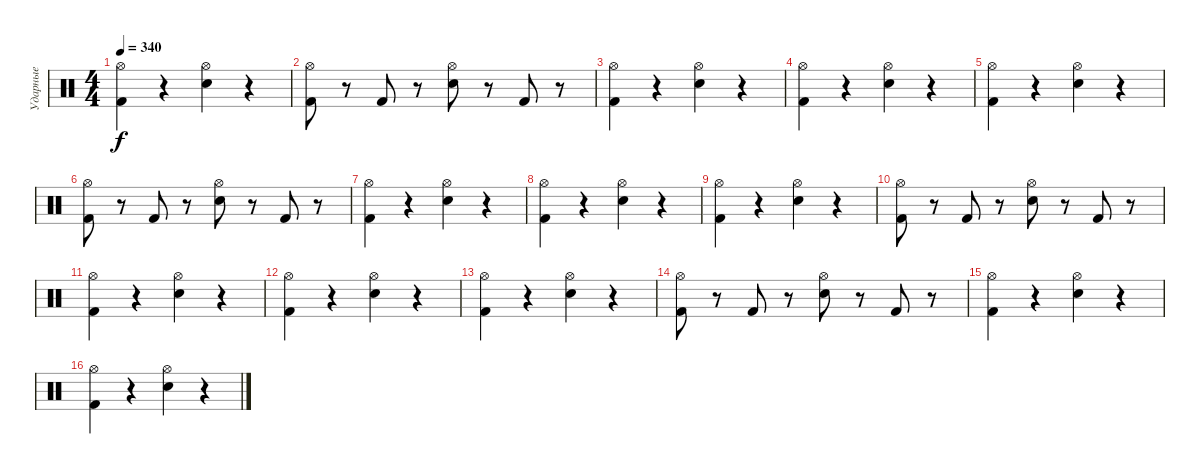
\track ("Ударные" "Ударные") {instrument percussion}
\staff {score}
\articulation defaults
\ts (4 4)
\tempo 340
\clef neutral
\ks c
("Kick (hit) 2" "Hi-Hat (open)").4{dy f} r.4 ("Electric Snare (hit)" "Hi-Hat (open)").4 r.4 |
("Kick (hit) 2" "Hi-Hat (open)").8 r.8 "Kick (hit) 2".8 r.8 ("Electric Snare (hit)" "Hi-Hat (open)").8 r.8 "Kick (hit) 2".8 r.8 |
("Kick (hit) 2" "Hi-Hat (open)").4 r.4 ("Electric Snare (hit)" "Hi-Hat (open)").4 r.4 |
("Kick (hit) 2" "Hi-Hat (open)").4 r.4 ("Electric Snare (hit)" "Hi-Hat (open)").4 r.4 |
("Kick (hit) 2" "Hi-Hat (open)").4 r.4 ("Electric Snare (hit)" "Hi-Hat (open)").4 r.4 |
("Kick (hit) 2" "Hi-Hat (open)").8 r.8 "Kick (hit) 2".8 r.8 ("Electric Snare (hit)" "Hi-Hat (open)").8 r.8 "Kick (hit) 2".8 r.8 |
("Kick (hit) 2" "Hi-Hat (open)").4 r.4 ("Electric Snare (hit)" "Hi-Hat (open)").4 r.4 |
("Kick (hit) 2" "Hi-Hat (open)").4 r.4 ("Electric Snare (hit)" "Hi-Hat (open)").4 r.4 |
("Kick (hit) 2" "Hi-Hat (open)").4 r.4 ("Electric Snare (hit)" "Hi-Hat (open)").4 r.4 |
("Kick (hit) 2" "Hi-Hat (open)").8 r.8 "Kick (hit) 2".8 r.8 ("Electric Snare (hit)" "Hi-Hat (open)").8 r.8 "Kick (hit) 2".8 r.8 |
("Kick (hit) 2" "Hi-Hat (open)").4 r.4 ("Electric Snare (hit)" "Hi-Hat (open)").4 r.4 |
("Kick (hit) 2" "Hi-Hat (open)").4 r.4 ("Electric Snare (hit)" "Hi-Hat (open)").4 r.4 |
("Kick (hit) 2" "Hi-Hat (open)").4 r.4 ("Electric Snare (hit)" "Hi-Hat (open)").4 r.4 |
("Kick (hit) 2" "Hi-Hat (open)").8 r.8 "Kick (hit) 2".8 r.8 ("Electric Snare (hit)" "Hi-Hat (open)").8 r.8 "Kick (hit) 2".8 r.8 |
("Kick (hit) 2" "Hi-Hat (open)").4 r.4 ("Electric Snare (hit)" "Hi-Hat (open)").4 r.4 |
("Kick (hit) 2" "Hi-Hat (open)").4 r.4 ("Electric Snare (hit)" "Hi-Hat (open)").4 r.4
